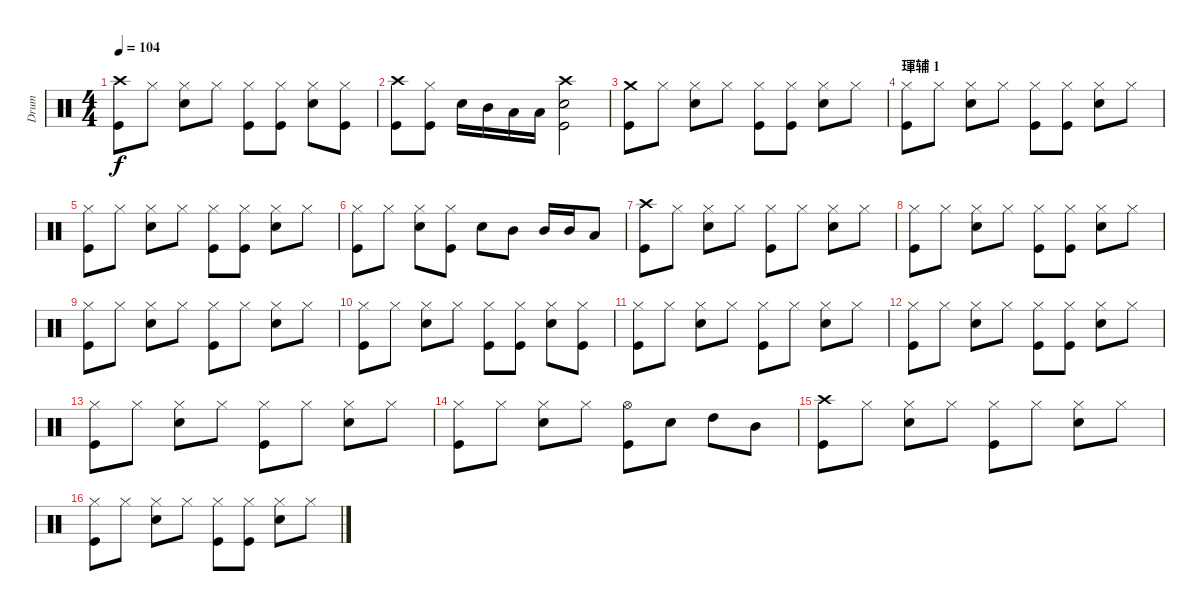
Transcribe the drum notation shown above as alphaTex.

\track ("Drum" "Drum") {instrument percussion}
\staff {score}
\articulation defaults
\ts (4 4)
\tempo 104
\clef neutral
\ks c
("Crash high (hit)" "Kick (hit)").8{dy f} "Hi-Hat (closed)".8 ("Electric Snare (hit)" "Hi-Hat (closed)").8 "Hi-Hat (closed)".8 ("Hi-Hat (closed)" "Kick (hit)").8 ("Hi-Hat (closed)" "Kick (hit)").8 ("Electric Snare (hit)" "Hi-Hat (closed)").8 ("Hi-Hat (closed)" "Kick (hit)").8 |
("Crash high (hit)" "Kick (hit)").8 ("Hi-Hat (closed)" "Kick (hit)").8 "Electric Snare (hit)".16 "Mid Tom (hit)".16 "Low Tom (hit)".16 "Low Tom (hit)".16 ("Electric Snare (hit)" "Crash high (hit)" "Kick (hit)").2 |
("Crash medium (hit)" "Kick (hit)").8 "Hi-Hat (closed)".8 ("Electric Snare (hit)" "Hi-Hat (closed)").8 "Hi-Hat (closed)".8 ("Hi-Hat (closed)" "Kick (hit)").8 ("Hi-Hat (closed)" "Kick (hit)").8 ("Electric Snare (hit)" "Hi-Hat (closed)").8 "Hi-Hat (closed)".8 |
\section ("" "琿辅 1")
("Hi-Hat (closed)" "Kick (hit)").8 "Hi-Hat (closed)".8 ("Electric Snare (hit)" "Hi-Hat (closed)").8 "Hi-Hat (closed)".8 ("Hi-Hat (closed)" "Kick (hit)").8 ("Hi-Hat (closed)" "Kick (hit)").8 ("Electric Snare (hit)" "Hi-Hat (closed)").8 "Hi-Hat (closed)".8 |
("Hi-Hat (closed)" "Kick (hit)").8 "Hi-Hat (closed)".8 ("Electric Snare (hit)" "Hi-Hat (closed)").8 "Hi-Hat (closed)".8 ("Hi-Hat (closed)" "Kick (hit)").8 ("Hi-Hat (closed)" "Kick (hit)").8 ("Electric Snare (hit)" "Hi-Hat (closed)").8 "Hi-Hat (closed)".8 |
("Hi-Hat (closed)" "Kick (hit)").8 "Hi-Hat (closed)".8 ("Electric Snare (hit)" "Hi-Hat (closed)").8 ("Hi-Hat (closed)" "Kick (hit)").8 "Electric Snare (hit)".8 "Mid Tom (hit)".8 "Mid Tom (hit)".16 "Mid Tom (hit)".16 "Low Tom (hit)".8 |
("Crash high (hit)" "Kick (hit)").8 "Hi-Hat (closed)".8 ("Electric Snare (hit)" "Hi-Hat (closed)").8 "Hi-Hat (closed)".8 ("Hi-Hat (closed)" "Kick (hit)").8 "Hi-Hat (closed)".8 ("Electric Snare (hit)" "Hi-Hat (closed)").8 "Hi-Hat (closed)".8 |
("Hi-Hat (closed)" "Kick (hit)").8 "Hi-Hat (closed)".8 ("Electric Snare (hit)" "Hi-Hat (closed)").8 "Hi-Hat (closed)".8 ("Hi-Hat (closed)" "Kick (hit)").8 ("Hi-Hat (closed)" "Kick (hit)").8 ("Electric Snare (hit)" "Hi-Hat (closed)").8 "Hi-Hat (closed)".8 |
("Hi-Hat (closed)" "Kick (hit)").8 "Hi-Hat (closed)".8 ("Electric Snare (hit)" "Hi-Hat (closed)").8 "Hi-Hat (closed)".8 ("Hi-Hat (closed)" "Kick (hit)").8 "Hi-Hat (closed)".8 ("Electric Snare (hit)" "Hi-Hat (closed)").8 "Hi-Hat (closed)".8 |
("Hi-Hat (closed)" "Kick (hit)").8 "Hi-Hat (closed)".8 ("Electric Snare (hit)" "Hi-Hat (closed)").8 "Hi-Hat (closed)".8 ("Hi-Hat (closed)" "Kick (hit)").8 ("Hi-Hat (closed)" "Kick (hit)").8 ("Electric Snare (hit)" "Hi-Hat (closed)").8 ("Hi-Hat (closed)" "Kick (hit)").8 |
("Hi-Hat (closed)" "Kick (hit)").8 "Hi-Hat (closed)".8 ("Electric Snare (hit)" "Hi-Hat (closed)").8 "Hi-Hat (closed)".8 ("Hi-Hat (closed)" "Kick (hit)").8 "Hi-Hat (closed)".8 ("Electric Snare (hit)" "Hi-Hat (closed)").8 "Hi-Hat (closed)".8 |
("Hi-Hat (closed)" "Kick (hit)").8 "Hi-Hat (closed)".8 ("Electric Snare (hit)" "Hi-Hat (closed)").8 "Hi-Hat (closed)".8 ("Hi-Hat (closed)" "Kick (hit)").8 ("Hi-Hat (closed)" "Kick (hit)").8 ("Electric Snare (hit)" "Hi-Hat (closed)").8 "Hi-Hat (closed)".8 |
("Hi-Hat (closed)" "Kick (hit)").8 "Hi-Hat (closed)".8 ("Electric Snare (hit)" "Hi-Hat (closed)").8 "Hi-Hat (closed)".8 ("Hi-Hat (closed)" "Kick (hit)").8 "Hi-Hat (closed)".8 ("Electric Snare (hit)" "Hi-Hat (closed)").8 "Hi-Hat (closed)".8 |
("Hi-Hat (closed)" "Kick (hit)").8 "Hi-Hat (closed)".8 ("Electric Snare (hit)" "Hi-Hat (closed)").8 "Hi-Hat (closed)".8 ("Hi-Hat (open)" "Kick (hit)").8 "Electric Snare (hit)".8 "High Tom (hit)".8 "Mid Tom (hit)".8 |
("Crash high (hit)" "Kick (hit)").8 "Hi-Hat (closed)".8 ("Electric Snare (hit)" "Hi-Hat (closed)").8 "Hi-Hat (closed)".8 ("Hi-Hat (closed)" "Kick (hit)").8 "Hi-Hat (closed)".8 ("Electric Snare (hit)" "Hi-Hat (closed)").8 "Hi-Hat (closed)".8 |
("Hi-Hat (closed)" "Kick (hit)").8 "Hi-Hat (closed)".8 ("Electric Snare (hit)" "Hi-Hat (closed)").8 "Hi-Hat (closed)".8 ("Hi-Hat (closed)" "Kick (hit)").8 ("Hi-Hat (closed)" "Kick (hit)").8 ("Electric Snare (hit)" "Hi-Hat (closed)").8 "Hi-Hat (closed)".8
